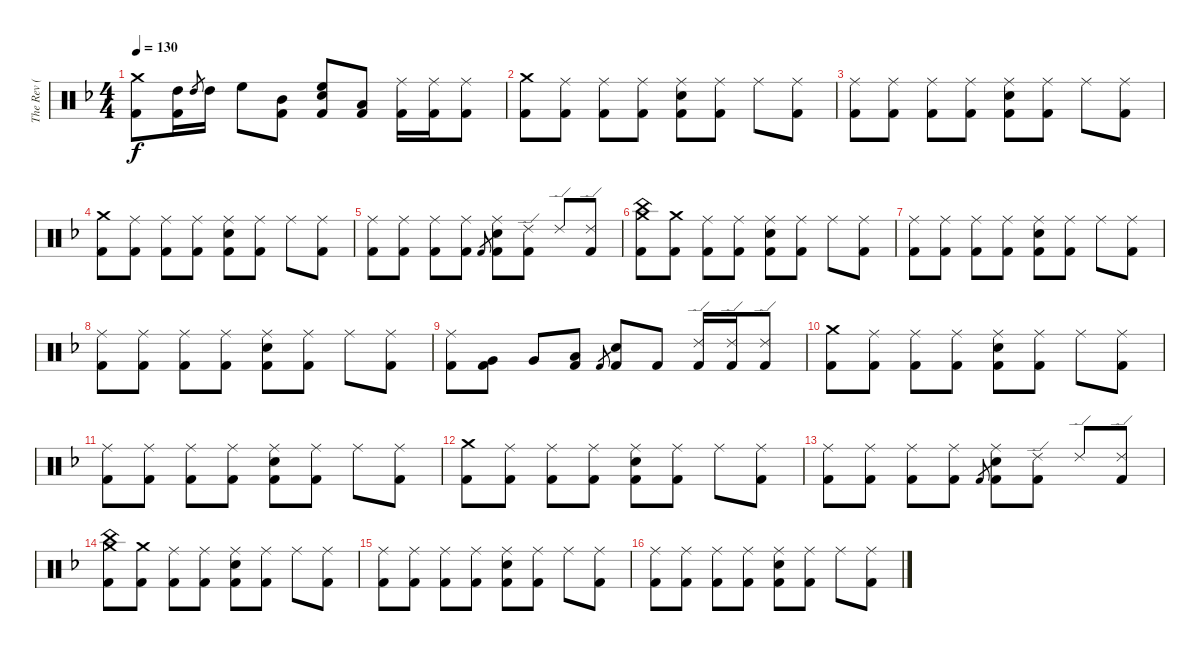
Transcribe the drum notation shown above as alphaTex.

\track ("The Rev ( Drums )" "The Rev ( ") {instrument percussion}
\staff {score}
\articulation defaults
\ts (4 4)
\tempo 130
\clef neutral
\ks f
("Crash medium (hit)" "Kick (hit) 2").8{dy f} ("High Tom (hit)" "Kick (hit) 2").16 "High Tom (hit)".8{gr} "High Tom (hit)".16 "High Floor Tom (hit)".8 ("Mid Tom (hit)" "Kick (hit) 2").8 ("High Floor Tom (hit)" "Snare (hit) 2" "Kick (hit) 2").8 ("Low Tom (hit)" "Kick (hit) 2").8 ("Ride (middle)" "Kick (hit) 2").16 ("Ride (middle)" "Kick (hit) 2").16 ("Ride (middle)" "Kick (hit) 2").8 |
("Crash medium (hit)" "Kick (hit) 2").8 ("Ride (middle)" "Kick (hit) 2").8 ("Ride (middle)" "Kick (hit) 2").8 ("Ride (middle)" "Kick (hit) 2").8 ("Ride (middle)" "Snare (hit) 2" "Kick (hit) 2").8 ("Ride (middle)" "Kick (hit) 2").8 "Ride (middle)".8 ("Ride (middle)" "Kick (hit) 2").8 |
("Ride (middle)" "Kick (hit) 2").8 ("Ride (middle)" "Kick (hit) 2").8 ("Ride (middle)" "Kick (hit) 2").8 ("Ride (middle)" "Kick (hit) 2").8 ("Ride (middle)" "Snare (hit) 2" "Kick (hit) 2").8 ("Ride (middle)" "Kick (hit) 2").8 "Ride (middle)".8 ("Ride (middle)" "Kick (hit) 2").8 |
("Crash medium (hit)" "Kick (hit) 2").8 ("Ride (middle)" "Kick (hit) 2").8 ("Ride (middle)" "Kick (hit) 2").8 ("Ride (middle)" "Kick (hit) 2").8 ("Ride (middle)" "Snare (hit) 2" "Kick (hit) 2").8 ("Ride (middle)" "Kick (hit) 2").8 "Ride (middle)".8 ("Ride (middle)" "Kick (hit) 2").8 |
("Ride (middle)" "Kick (hit) 2").8 ("Ride (middle)" "Kick (hit) 2").8 ("Ride (middle)" "Kick (hit) 2").8 ("Ride (middle)" "Kick (hit) 2").8 "Kick (hit) 2".8{gr} ("Ride (middle)" "Snare (hit) 2" "Kick (hit) 2").8 ("Ride (edge) 2" "Kick (hit) 2").8 "Ride (edge) 2".8 ("Ride (edge) 2" "Kick (hit) 2").8 |
("China (hit)" "Crash medium (hit)" "Kick (hit) 2").8 ("Crash medium (hit)" "Kick (hit) 2").8 ("Ride (middle)" "Kick (hit) 2").8 ("Ride (middle)" "Kick (hit) 2").8 ("Ride (middle)" "Snare (hit) 2" "Kick (hit) 2").8 ("Ride (middle)" "Kick (hit) 2").8 "Ride (middle)".8 ("Ride (middle)" "Kick (hit) 2").8 |
("Ride (middle)" "Kick (hit) 2").8 ("Ride (middle)" "Kick (hit) 2").8 ("Ride (middle)" "Kick (hit) 2").8 ("Ride (middle)" "Kick (hit) 2").8 ("Ride (middle)" "Snare (hit) 2" "Kick (hit) 2").8 ("Ride (middle)" "Kick (hit) 2").8 "Ride (middle)".8 ("Ride (middle)" "Kick (hit) 2").8 |
("Ride (middle)" "Kick (hit) 2").8 ("Ride (middle)" "Kick (hit) 2").8 ("Ride (middle)" "Kick (hit) 2").8 ("Ride (middle)" "Kick (hit) 2").8 ("Ride (middle)" "Snare (hit) 2" "Kick (hit) 2").8 ("Ride (middle)" "Kick (hit) 2").8 "Ride (middle)".8 ("Ride (middle)" "Kick (hit) 2").8 |
("Ride (middle)" "Kick (hit) 2").8 ("Very Low Tom (hit)" "Kick (hit) 2").8 "Very Low Tom (hit)".8 ("Low Floor Tom (hit)" "Kick (hit) 2").8 "Kick (hit) 2".8{gr} ("Snare (hit) 2" "Kick (hit) 2").8 "Kick (hit) 2".8 ("Ride (edge) 2" "Kick (hit) 2").16 ("Ride (edge) 2" "Kick (hit) 2").16 ("Ride (edge) 2" "Kick (hit) 2").8 |
("Crash medium (hit)" "Kick (hit) 2").8 ("Ride (middle)" "Kick (hit) 2").8 ("Ride (middle)" "Kick (hit) 2").8 ("Ride (middle)" "Kick (hit) 2").8 ("Ride (middle)" "Snare (hit) 2" "Kick (hit) 2").8 ("Ride (middle)" "Kick (hit) 2").8 "Ride (middle)".8 ("Ride (middle)" "Kick (hit) 2").8 |
("Ride (middle)" "Kick (hit) 2").8 ("Ride (middle)" "Kick (hit) 2").8 ("Ride (middle)" "Kick (hit) 2").8 ("Ride (middle)" "Kick (hit) 2").8 ("Ride (middle)" "Snare (hit) 2" "Kick (hit) 2").8 ("Ride (middle)" "Kick (hit) 2").8 "Ride (middle)".8 ("Ride (middle)" "Kick (hit) 2").8 |
("Crash medium (hit)" "Kick (hit) 2").8 ("Ride (middle)" "Kick (hit) 2").8 ("Ride (middle)" "Kick (hit) 2").8 ("Ride (middle)" "Kick (hit) 2").8 ("Ride (middle)" "Snare (hit) 2" "Kick (hit) 2").8 ("Ride (middle)" "Kick (hit) 2").8 "Ride (middle)".8 ("Ride (middle)" "Kick (hit) 2").8 |
("Ride (middle)" "Kick (hit) 2").8 ("Ride (middle)" "Kick (hit) 2").8 ("Ride (middle)" "Kick (hit) 2").8 ("Ride (middle)" "Kick (hit) 2").8 "Kick (hit) 2".8{gr} ("Ride (middle)" "Snare (hit) 2" "Kick (hit) 2").8 ("Ride (edge) 2" "Kick (hit) 2").8 "Ride (edge) 2".8 ("Ride (edge) 2" "Kick (hit) 2").8 |
("China (hit)" "Crash medium (hit)" "Kick (hit) 2").8 ("Crash medium (hit)" "Kick (hit) 2").8 ("Ride (middle)" "Kick (hit) 2").8 ("Ride (middle)" "Kick (hit) 2").8 ("Ride (middle)" "Snare (hit) 2" "Kick (hit) 2").8 ("Ride (middle)" "Kick (hit) 2").8 "Ride (middle)".8 ("Ride (middle)" "Kick (hit) 2").8 |
("Ride (middle)" "Kick (hit) 2").8 ("Ride (middle)" "Kick (hit) 2").8 ("Ride (middle)" "Kick (hit) 2").8 ("Ride (middle)" "Kick (hit) 2").8 ("Ride (middle)" "Snare (hit) 2" "Kick (hit) 2").8 ("Ride (middle)" "Kick (hit) 2").8 "Ride (middle)".8 ("Ride (middle)" "Kick (hit) 2").8 |
("Ride (middle)" "Kick (hit) 2").8 ("Ride (middle)" "Kick (hit) 2").8 ("Ride (middle)" "Kick (hit) 2").8 ("Ride (middle)" "Kick (hit) 2").8 ("Ride (middle)" "Snare (hit) 2" "Kick (hit) 2").8 ("Ride (middle)" "Kick (hit) 2").8 "Ride (middle)".8 ("Ride (middle)" "Kick (hit) 2").8
